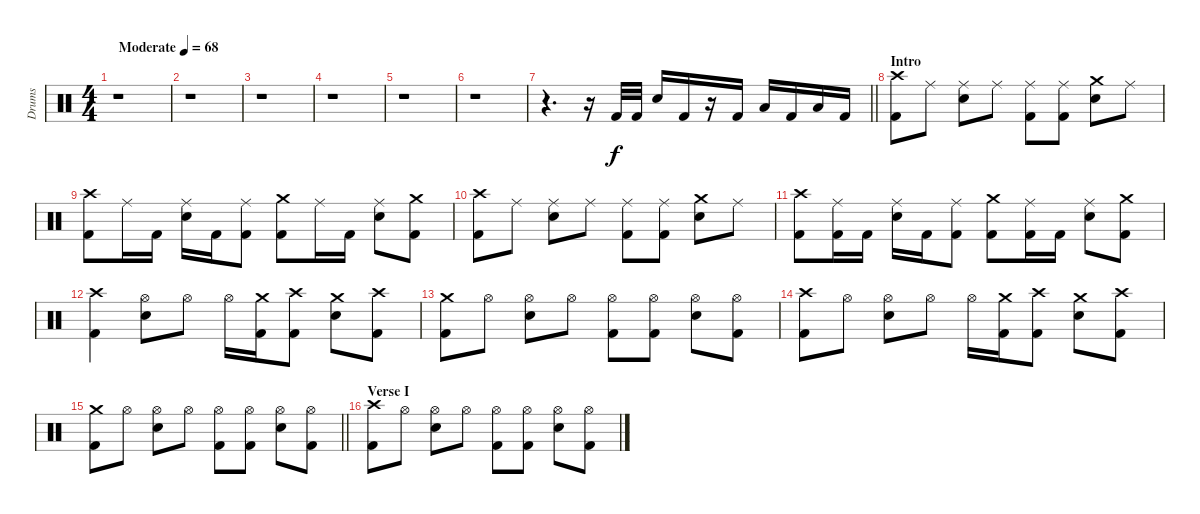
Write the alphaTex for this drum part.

\track ("Drums" "Drums") {instrument percussion}
\staff {score}
\articulation defaults
\ts (4 4)
\tempo (68 "Moderate")
\clef neutral
\ks c
r.1{dy f} |
r.1 |
r.1 |
r.1 |
r.1 |
r.1 |
\barLineRight lightlight
r.4{d} r.16 "Kick (hit) 2".32 "Kick (hit) 2".32 "Snare (hit) 2".16 "Kick (hit) 2".16 r.16 "Kick (hit) 2".16 "Low Tom (hit)".16 "Kick (hit) 2".16 "Low Tom (hit)".16 "Kick (hit) 2".16 |
\section ("" "Intro")
("Crash high (hit)" "Kick (hit) 2").8 "Ride (middle)".8 ("Ride (middle)" "Snare (hit) 2").8 "Ride (middle)".8 ("Ride (middle)" "Kick (hit) 2").8 ("Ride (middle)" "Kick (hit) 2").8 ("Crash medium (hit)" "Snare (hit) 2").8 "Ride (middle)".8 |
("Crash high (hit)" "Kick (hit) 2").8 "Ride (middle)".16 "Kick (hit) 2".16 ("Ride (middle)" "Snare (hit) 2").16 "Kick (hit) 2".16 ("Ride (middle)" "Kick (hit) 2").8 ("Crash medium (hit)" "Kick (hit) 2").8 "Ride (middle)".16 "Kick (hit) 2".16 ("Ride (middle)" "Snare (hit) 2").8 ("Crash medium (hit)" "Kick (hit) 2").8 |
("Crash high (hit)" "Kick (hit) 2").8 "Ride (middle)".8 ("Ride (middle)" "Snare (hit) 2").8 "Ride (middle)".8 ("Ride (middle)" "Kick (hit) 2").8 ("Ride (middle)" "Kick (hit) 2").8 ("Crash medium (hit)" "Snare (hit) 2").8 "Ride (middle)".8 |
("Crash high (hit)" "Kick (hit) 2").8 ("Ride (middle)" "Kick (hit) 2").16 "Kick (hit) 2".16 ("Ride (middle)" "Snare (hit) 2").16 "Kick (hit) 2".16 ("Ride (middle)" "Kick (hit) 2").8 ("Crash medium (hit)" "Kick (hit) 2").8 ("Ride (middle)" "Kick (hit) 2").16 "Kick (hit) 2".16 ("Ride (middle)" "Snare (hit) 2").8 ("Crash medium (hit)" "Kick (hit) 2").8 |
("Crash high (hit)" "Kick (hit) 2").4 ("Hi-Hat (open)" "Snare (hit) 2").8 "Hi-Hat (open)".8 "Hi-Hat (open)".16 ("Crash medium (hit)" "Kick (hit) 2").16 ("Crash high (hit)" "Kick (hit) 2").8 ("Crash medium (hit)" "Snare (hit) 2").8 ("Crash high (hit)" "Kick (hit) 2").8 |
("Crash medium (hit)" "Kick (hit) 2").8 "Hi-Hat (open)".8 ("Hi-Hat (open)" "Snare (hit) 2").8 "Hi-Hat (open)".8 ("Hi-Hat (open)" "Kick (hit) 2").8 ("Hi-Hat (open)" "Kick (hit) 2").8 ("Hi-Hat (open)" "Snare (hit) 2").8 ("Hi-Hat (open)" "Kick (hit) 2").8 |
("Crash high (hit)" "Kick (hit) 2").8 "Hi-Hat (open)".8 ("Hi-Hat (open)" "Snare (hit) 2").8 "Hi-Hat (open)".8 "Hi-Hat (open)".16 ("Crash medium (hit)" "Kick (hit) 2").16 ("Crash high (hit)" "Kick (hit) 2").8 ("Crash medium (hit)" "Snare (hit) 2").8 ("Crash high (hit)" "Kick (hit) 2").8 |
\barLineRight lightlight
("Crash medium (hit)" "Kick (hit) 2").8 "Hi-Hat (open)".8 ("Hi-Hat (open)" "Snare (hit) 2").8 "Hi-Hat (open)".8 ("Hi-Hat (open)" "Kick (hit) 2").8 ("Hi-Hat (open)" "Kick (hit) 2").8 ("Hi-Hat (open)" "Snare (hit) 2").8 ("Hi-Hat (open)" "Kick (hit) 2").8 |
\section ("" "Verse I")
("Crash high (hit)" "Kick (hit) 2").8 "Hi-Hat (open)".8 ("Hi-Hat (open)" "Snare (hit) 2").8 "Hi-Hat (open)".8 ("Hi-Hat (open)" "Kick (hit) 2").8 ("Hi-Hat (open)" "Kick (hit) 2").8 ("Hi-Hat (open)" "Snare (hit) 2").8 ("Hi-Hat (open)" "Kick (hit) 2").8
